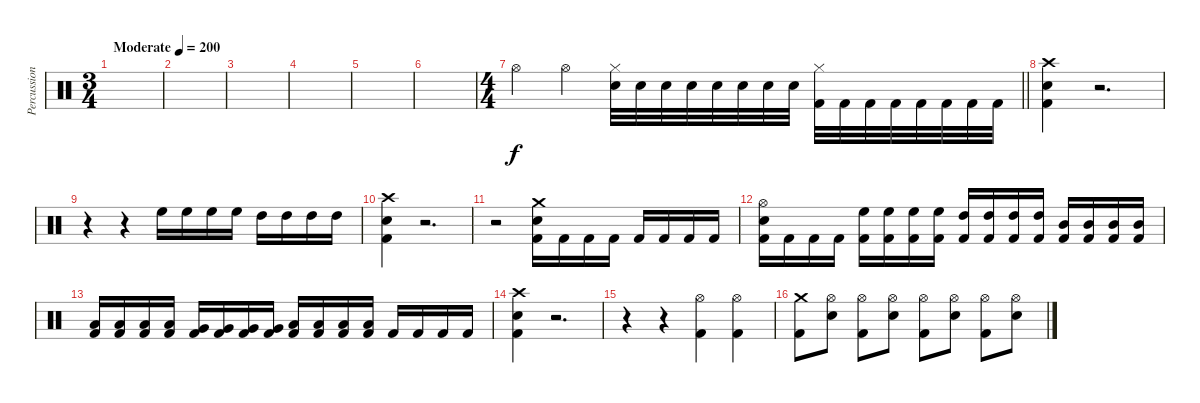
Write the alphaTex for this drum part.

\track ("Percussion" "Percussion") {instrument percussion}
\staff
\articulation defaults
\ts (3 4)
\tempo (200 "Moderate")
\clef neutral
\ks c
|
|
|
|
|
|
\ts (4 4)
\barLineRight lightlight "Hi-Hat (open)".4 "Hi-Hat (open)".4
("Hi-Hat (closed)" "Electric Snare (hit)").32 "Electric Snare (hit)".32 "Electric Snare (hit)".32 "Electric Snare (hit)".32 "Electric Snare (hit)".32 "Electric Snare (hit)".32 "Electric Snare (hit)".32 "Electric Snare (hit)".32 ("Hi-Hat (closed)" "Kick (hit) 2").32 "Kick (hit) 2".32 "Kick (hit) 2".32 "Kick (hit) 2".32 "Kick (hit) 2".32 "Kick (hit) 2".32 "Kick (hit) 2".32 "Kick (hit) 2".32 |
("Crash high (hit)" "Electric Snare (hit)" "Kick (hit) 2").4 r.2{d} |
r.4 r.4 "High Floor Tom (hit)".16 "High Floor Tom (hit)".16 "High Floor Tom (hit)".16 "High Floor Tom (hit)".16 "High Tom (hit)".16 "High Tom (hit)".16 "High Tom (hit)".16 "High Tom (hit)".16 |
("Crash high (hit)" "Electric Snare (hit)" "Kick (hit) 2").4 r.2{d} |
r.2 ("Crash medium (hit)" "Electric Snare (hit)" "Kick (hit) 2").16 "Kick (hit) 2".16 "Kick (hit) 2".16 "Kick (hit) 2".16 "Kick (hit) 2".16 "Kick (hit) 2".16 "Kick (hit) 2".16 "Kick (hit) 2".16 |
("Hi-Hat (open)" "Electric Snare (hit)" "Kick (hit) 2").16 "Kick (hit) 2".16 "Kick (hit) 2".16 "Kick (hit) 2".16 ("High Floor Tom (hit)" "Kick (hit) 2").16 ("High Floor Tom (hit)" "Kick (hit) 2").16 ("High Floor Tom (hit)" "Kick (hit) 2").16 ("High Floor Tom (hit)" "Kick (hit) 2").16 ("High Tom (hit)" "Kick (hit) 2").16 ("High Tom (hit)" "Kick (hit) 2").16 ("High Tom (hit)" "Kick (hit) 2").16 ("High Tom (hit)" "Kick (hit) 2").16 ("Mid Tom (hit)" "Kick (hit) 2").16 ("Mid Tom (hit)" "Kick (hit) 2").16 ("Mid Tom (hit)" "Kick (hit) 2").16 ("Mid Tom (hit)" "Kick (hit) 2").16 |
("Low Tom (hit)" "Kick (hit) 2").16 ("Low Tom (hit)" "Kick (hit) 2").16 ("Low Tom (hit)" "Kick (hit) 2").16 ("Low Tom (hit)" "Kick (hit) 2").16 ("Very Low Tom (hit)" "Kick (hit) 2").16 ("Very Low Tom (hit)" "Kick (hit) 2").16 ("Very Low Tom (hit)" "Kick (hit) 2").16 ("Very Low Tom (hit)" "Kick (hit) 2").16 ("Low Floor Tom (hit)" "Kick (hit) 2").16 ("Low Floor Tom (hit)" "Kick (hit) 2").16 ("Low Floor Tom (hit)" "Kick (hit) 2").16 ("Low Floor Tom (hit)" "Kick (hit) 2").16 "Kick (hit) 2".16 "Kick (hit) 2".16 "Kick (hit) 2".16 "Kick (hit) 2".16 |
("Crash high (hit)" "Electric Snare (hit)" "Kick (hit) 2").4 r.2{d} |
r.4 r.4 ("Hi-Hat (open)" "Kick (hit) 2").4 ("Hi-Hat (open)" "Kick (hit) 2").4 |
("Crash medium (hit)" "Kick (hit) 2").8 ("Hi-Hat (open)" "Electric Snare (hit)").8 ("Hi-Hat (open)" "Kick (hit) 2").8 ("Hi-Hat (open)" "Electric Snare (hit)").8 ("Hi-Hat (open)" "Kick (hit) 2").8 ("Hi-Hat (open)" "Electric Snare (hit)").8 ("Hi-Hat (open)" "Kick (hit) 2").8 ("Hi-Hat (open)" "Electric Snare (hit)").8
